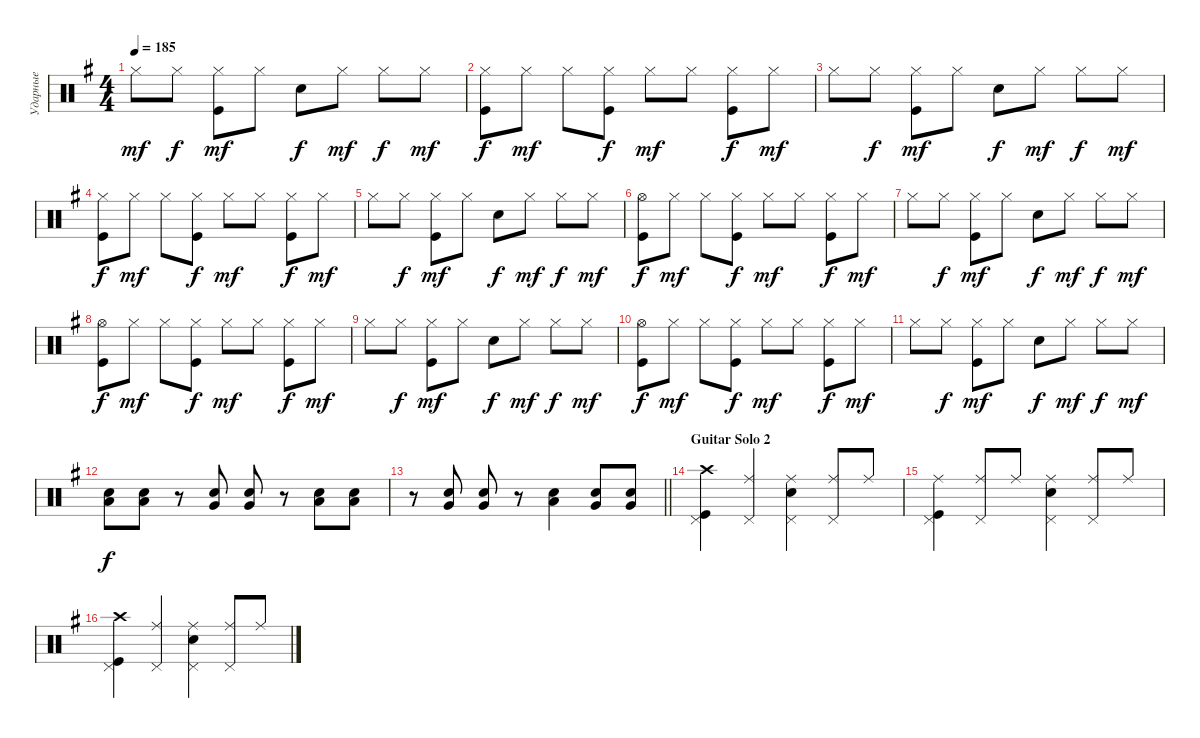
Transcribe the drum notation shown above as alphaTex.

\track ("Ударные" "Ударные") {instrument percussion}
\staff {score}
\articulation defaults
\ts (4 4)
\tempo 185
\clef neutral
\ks eminor "Hi-Hat (closed)".8{dy mf} "Hi-Hat (closed)".8{dy f}
("Hi-Hat (closed)" "Kick (hit)").8{dy mf} "Hi-Hat (closed)".8 "Snare (hit) 2".8{dy f} "Hi-Hat (closed)".8{dy mf} "Hi-Hat (closed)".8{dy f} "Hi-Hat (closed)".8{dy mf} |
("Hi-Hat (closed)" "Kick (hit)").8{dy f} "Hi-Hat (closed)".8{dy mf} "Hi-Hat (closed)".8 ("Hi-Hat (closed)" "Kick (hit)").8{dy f} "Hi-Hat (closed)".8{dy mf} "Hi-Hat (closed)".8 ("Hi-Hat (closed)" "Kick (hit)").8{dy f} "Hi-Hat (closed)".8{dy mf} |
"Hi-Hat (closed)".8 "Hi-Hat (closed)".8{dy f} ("Hi-Hat (closed)" "Kick (hit)").8{dy mf} "Hi-Hat (closed)".8 "Snare (hit) 2".8{dy f} "Hi-Hat (closed)".8{dy mf} "Hi-Hat (closed)".8{dy f} "Hi-Hat (closed)".8{dy mf} |
("Hi-Hat (closed)" "Kick (hit)").8{dy f} "Hi-Hat (closed)".8{dy mf} "Hi-Hat (closed)".8 ("Hi-Hat (closed)" "Kick (hit)").8{dy f} "Hi-Hat (closed)".8{dy mf} "Hi-Hat (closed)".8 ("Hi-Hat (closed)" "Kick (hit)").8{dy f} "Hi-Hat (closed)".8{dy mf} |
"Hi-Hat (closed)".8 "Hi-Hat (closed)".8{dy f} ("Hi-Hat (closed)" "Kick (hit)").8{dy mf} "Hi-Hat (closed)".8 "Snare (hit) 2".8{dy f} "Hi-Hat (closed)".8{dy mf} "Hi-Hat (closed)".8{dy f} "Hi-Hat (closed)".8{dy mf} |
("Hi-Hat (open)" "Kick (hit)").8{dy f} "Hi-Hat (closed)".8{dy mf} "Hi-Hat (closed)".8 ("Hi-Hat (closed)" "Kick (hit)").8{dy f} "Hi-Hat (closed)".8{dy mf} "Hi-Hat (closed)".8 ("Hi-Hat (closed)" "Kick (hit)").8{dy f} "Hi-Hat (closed)".8{dy mf} |
"Hi-Hat (closed)".8 "Hi-Hat (closed)".8{dy f} ("Hi-Hat (closed)" "Kick (hit)").8{dy mf} "Hi-Hat (closed)".8 "Snare (hit) 2".8{dy f} "Hi-Hat (closed)".8{dy mf} "Hi-Hat (closed)".8{dy f} "Hi-Hat (closed)".8{dy mf} |
("Hi-Hat (open)" "Kick (hit)").8{dy f} "Hi-Hat (closed)".8{dy mf} "Hi-Hat (closed)".8 ("Hi-Hat (closed)" "Kick (hit)").8{dy f} "Hi-Hat (closed)".8{dy mf} "Hi-Hat (closed)".8 ("Hi-Hat (closed)" "Kick (hit)").8{dy f} "Hi-Hat (closed)".8{dy mf} |
"Hi-Hat (closed)".8 "Hi-Hat (closed)".8{dy f} ("Hi-Hat (closed)" "Kick (hit)").8{dy mf} "Hi-Hat (closed)".8 "Snare (hit) 2".8{dy f} "Hi-Hat (closed)".8{dy mf} "Hi-Hat (closed)".8{dy f} "Hi-Hat (closed)".8{dy mf} |
("Hi-Hat (open)" "Kick (hit)").8{dy f} "Hi-Hat (closed)".8{dy mf} "Hi-Hat (closed)".8 ("Hi-Hat (closed)" "Kick (hit)").8{dy f} "Hi-Hat (closed)".8{dy mf} "Hi-Hat (closed)".8 ("Hi-Hat (closed)" "Kick (hit)").8{dy f} "Hi-Hat (closed)".8{dy mf} |
"Hi-Hat (closed)".8 "Hi-Hat (closed)".8{dy f} ("Hi-Hat (closed)" "Kick (hit)").8{dy mf} "Hi-Hat (closed)".8 "Snare (hit) 2".8{dy f} "Hi-Hat (closed)".8{dy mf} "Hi-Hat (closed)".8{dy f} "Hi-Hat (closed)".8{dy mf} |
("Snare (hit) 2" "Low Tom (hit)").8{dy f} ("Snare (hit) 2" "Low Tom (hit)").8 r.8 ("Snare (hit) 2" "Very Low Tom (hit)").8 ("Snare (hit) 2" "Very Low Tom (hit)").8 r.8 ("Snare (hit) 2" "Low Tom (hit)").8 ("Snare (hit) 2" "Low Tom (hit)").8 |
\barLineRight lightlight
r.8 ("Snare (hit) 2" "Very Low Tom (hit)").8 ("Snare (hit) 2" "Very Low Tom (hit)").8 r.8 ("Snare (hit) 2" "Low Tom (hit)").4 ("Snare (hit) 2" "Very Low Tom (hit)").8 ("Snare (hit) 2" "Very Low Tom (hit)").8 |
\section ("" "Guitar Solo 2")
("Kick (hit)" "Pedal Hi-Hat (hit)" "Crash high (hit)").4 ("Pedal Hi-Hat (hit)" "Ride (middle)").4 ("Pedal Hi-Hat (hit)" "Snare (hit) 2" "Ride (middle)").4 ("Ride (middle)" "Pedal Hi-Hat (hit)").8 "Ride (middle)".8 |
("Ride (middle)" "Pedal Hi-Hat (hit)" "Kick (hit)").4 ("Ride (middle)" "Pedal Hi-Hat (hit)").8 "Ride (middle)".8 ("Ride (middle)" "Pedal Hi-Hat (hit)" "Snare (hit) 2").4 ("Ride (middle)" "Pedal Hi-Hat (hit)").8 "Ride (middle)".8 |
("Kick (hit)" "Pedal Hi-Hat (hit)" "Crash high (hit)").4 ("Pedal Hi-Hat (hit)" "Ride (middle)").4 ("Pedal Hi-Hat (hit)" "Snare (hit) 2" "Ride (middle)").4 ("Ride (middle)" "Pedal Hi-Hat (hit)").8 "Ride (middle)".8
